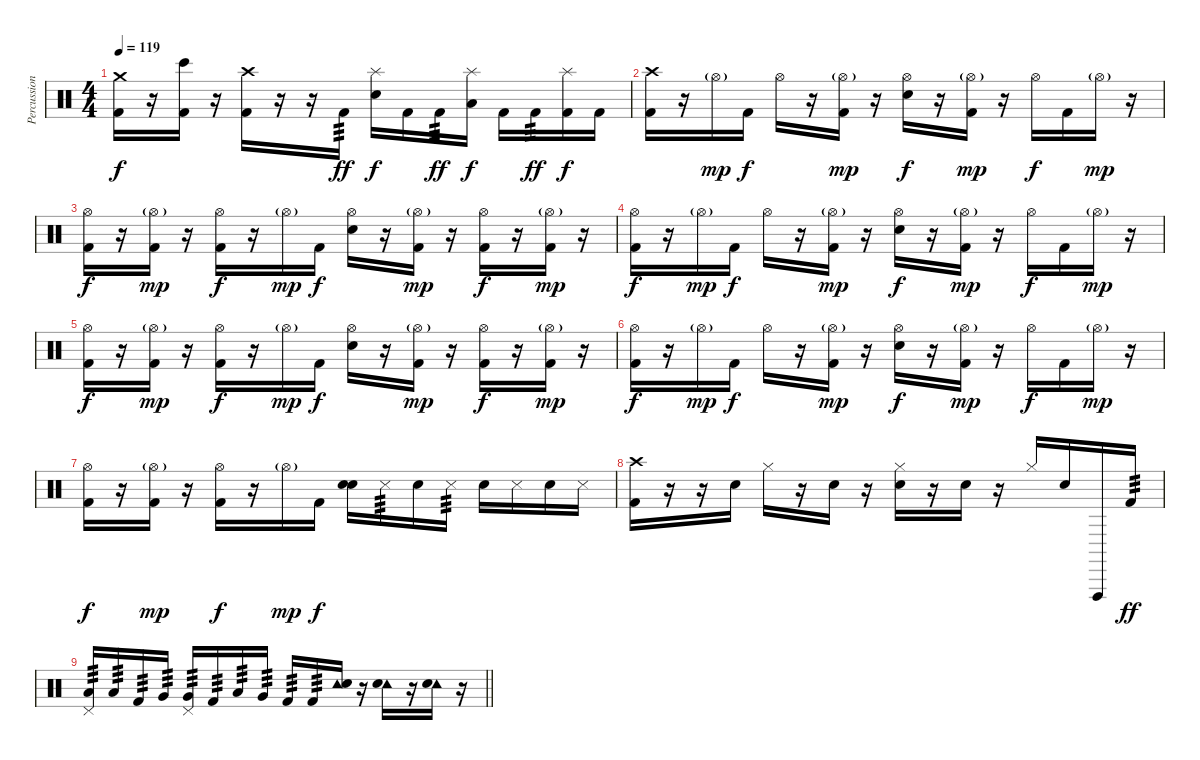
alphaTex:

\track ("Percussion" "Percussion") {instrument percussion}
\staff {score}
\articulation defaults
\ts (4 4)
\tempo 119
\clef neutral
\ks c
("Crash medium (hit)" "Kick (hit) 2").16{dy f} r.16 ("Bongo High (hit)" "Kick (hit) 2").16 r.16 ("Crash high (hit)" "Kick (hit) 2").16 r.16 r.16 "Kick (hit) 2".16{tp 3 dy ff} ("Splash (hit)" "Snare (hit) 2").16{dy f} "Kick (hit) 2".16 "Kick (hit) 2".16{tp 3 dy ff} ("Splash (hit)" "Low Tom (hit)").16{dy f} "Kick (hit) 2".16 "Kick (hit) 2".16{tp 3 dy ff} ("Splash (hit)" "Kick (hit) 2").16{dy f} "Kick (hit) 2".16 |
("Crash high (hit)" "Kick (hit) 2").16 r.16 "Hi-Hat (open)"{g}.16{dy mp} "Kick (hit) 2".16{dy f} "Hi-Hat (open)".16 r.16 ("Hi-Hat (open)"{g} "Kick (hit) 2").16{dy mp} r.16 ("Hi-Hat (open)" "Snare (hit) 2").16{dy f} r.16 ("Hi-Hat (open)"{g} "Kick (hit) 2").16{dy mp} r.16 "Hi-Hat (open)".16{dy f} "Kick (hit) 2".16 "Hi-Hat (open)"{g}.16{dy mp} r.16 |
("Hi-Hat (open)" "Kick (hit) 2").16{dy f} r.16 ("Hi-Hat (open)"{g} "Kick (hit) 2").16{dy mp} r.16 ("Hi-Hat (open)" "Kick (hit) 2").16{dy f} r.16 "Hi-Hat (open)"{g}.16{dy mp} "Kick (hit) 2".16{dy f} ("Hi-Hat (open)" "Snare (hit) 2").16 r.16 ("Hi-Hat (open)"{g} "Kick (hit) 2").16{dy mp} r.16 ("Hi-Hat (open)" "Kick (hit) 2").16{dy f} r.16 ("Hi-Hat (open)"{g} "Kick (hit) 2").16{dy mp} r.16 |
("Hi-Hat (open)" "Kick (hit) 2").16{dy f} r.16 "Hi-Hat (open)"{g}.16{dy mp} "Kick (hit) 2".16{dy f} "Hi-Hat (open)".16 r.16 ("Hi-Hat (open)"{g} "Kick (hit) 2").16{dy mp} r.16 ("Hi-Hat (open)" "Snare (hit) 2").16{dy f} r.16 ("Hi-Hat (open)"{g} "Kick (hit) 2").16{dy mp} r.16 "Hi-Hat (open)".16{dy f} "Kick (hit) 2".16 "Hi-Hat (open)"{g}.16{dy mp} r.16 |
("Hi-Hat (open)" "Kick (hit) 2").16{dy f} r.16 ("Hi-Hat (open)"{g} "Kick (hit) 2").16{dy mp} r.16 ("Hi-Hat (open)" "Kick (hit) 2").16{dy f} r.16 "Hi-Hat (open)"{g}.16{dy mp} "Kick (hit) 2".16{dy f} ("Hi-Hat (open)" "Snare (hit) 2").16 r.16 ("Hi-Hat (open)"{g} "Kick (hit) 2").16{dy mp} r.16 ("Hi-Hat (open)" "Kick (hit) 2").16{dy f} r.16 ("Hi-Hat (open)"{g} "Kick (hit) 2").16{dy mp} r.16 |
("Hi-Hat (open)" "Kick (hit) 2").16{dy f} r.16 "Hi-Hat (open)"{g}.16{dy mp} "Kick (hit) 2".16{dy f} "Hi-Hat (open)".16 r.16 ("Hi-Hat (open)"{g} "Kick (hit) 2").16{dy mp} r.16 ("Hi-Hat (open)" "Snare (hit) 2").16{dy f} r.16 ("Hi-Hat (open)"{g} "Kick (hit) 2").16{dy mp} r.16 "Hi-Hat (open)".16{dy f} "Kick (hit) 2".16 "Hi-Hat (open)"{g}.16{dy mp} r.16 |
("Hi-Hat (open)" "Kick (hit) 2").16{dy f} r.16 ("Hi-Hat (open)"{g} "Kick (hit) 2").16{dy mp} r.16 ("Hi-Hat (open)" "Kick (hit) 2").16{dy f} r.16 "Hi-Hat (open)"{g}.16{dy mp} "Kick (hit) 2".16{dy f} ("Snare (hit)" "Snare (hit) 2").16 "Metronome (hit)".16{tp 3} "Snare (hit) 2".16 "Metronome (hit)".16{tp 3} "Snare (hit) 2".16 "Metronome (hit)".16 "Snare (hit) 2".16 "Metronome (hit)".16 |
("Crash high (hit)" "Kick (hit) 2").16 r.16 r.16 "Snare (hit) 2".16 "Hi-Hat (closed)".16 r.16 "Snare (hit) 2".16 r.16 ("Hi-Hat (closed)" "Snare (hit) 2").16 r.16 "Snare (hit) 2".16 r.16 "Hi-Hat (closed)".16 "Snare (hit) 2".16 "Vibraslap (hit)".16 "Kick (hit) 2".16{tp 3 dy ff} |
\barLineRight lightlight
("Pedal Hi-Hat (hit)" "Low Tom (hit)").16{tp 3} "Low Tom (hit)".16{tp 3} "Kick (hit) 2".16{tp 3} "Very Low Tom (hit)".16{tp 3} ("Pedal Hi-Hat (hit)" "Very Low Tom (hit)").16{tp 3} "Kick (hit) 2".16{tp 3} "Low Tom (hit)".16{tp 3} "Very Low Tom (hit)".16{tp 3} "Kick (hit) 2".16{tp 3} "Kick (hit) 2".16{tp 3} ("Tambourine (hit)" "Snare (hit) 2").16 r.16 ("Tambourine (hit)" "Snare (hit) 2").16 r.16 ("Tambourine (hit)" "Snare (hit) 2").16 r.16
